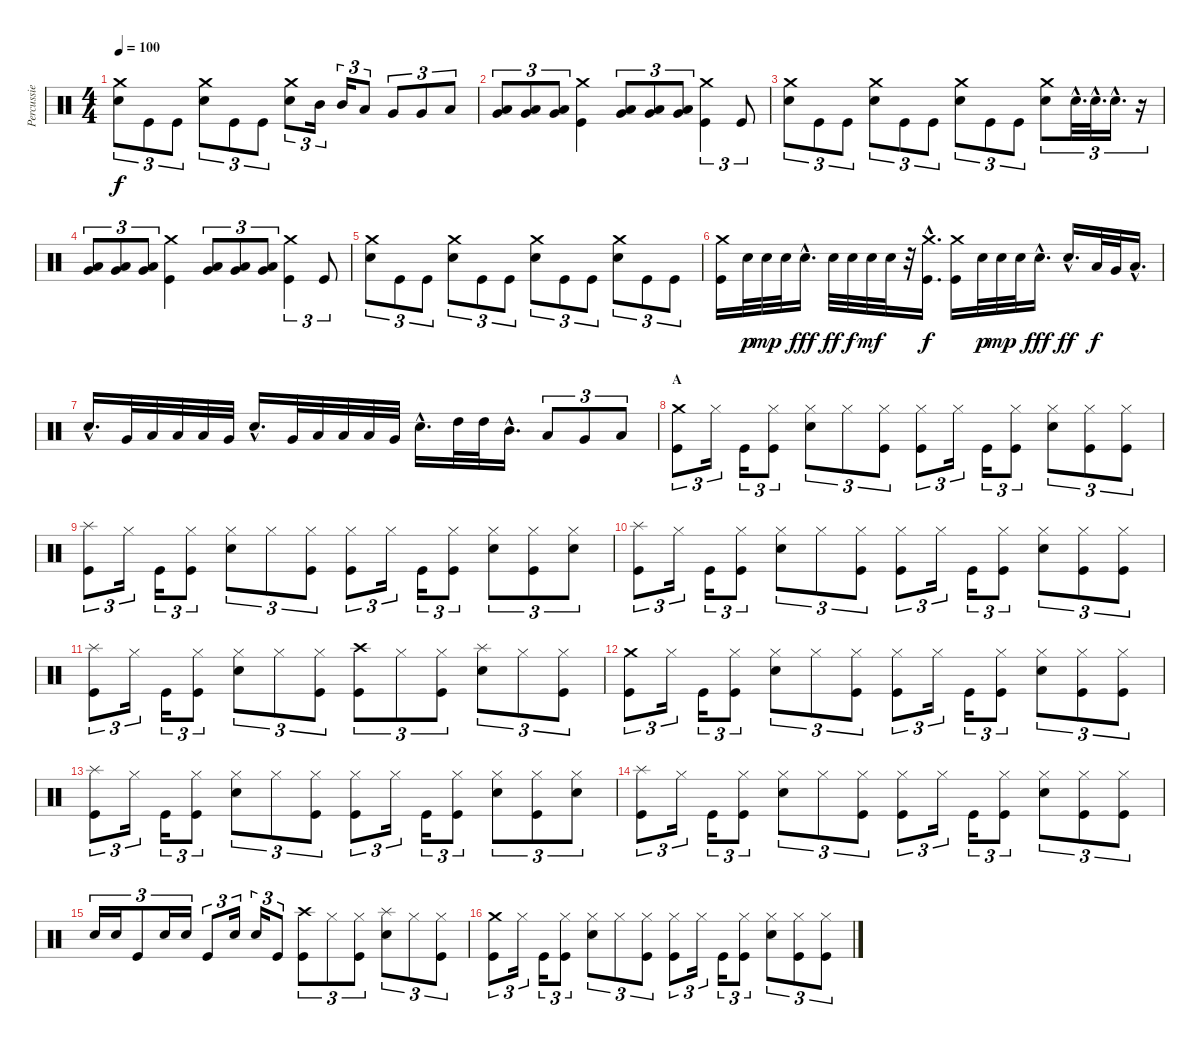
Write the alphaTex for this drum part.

\track ("Percussie" "Percussie") {instrument percussion}
\staff {score}
\articulation defaults
\ts (4 4)
\tempo 100
\clef neutral
\ks c
("Crash medium (hit)" "Electric Snare (hit)").8{tu (3 2) dy f} "Kick (hit)".8{tu (3 2)} "Kick (hit)".8{tu (3 2)} ("Crash medium (hit)" "Electric Snare (hit)").8{tu (3 2)} "Kick (hit)".8{tu (3 2)} "Kick (hit)".8{tu (3 2)} ("Crash medium (hit)" "Electric Snare (hit)").8{tu (3 2)} "Mid Tom (hit)".16{tu (3 2)} "Mid Tom (hit)".16{tu (3 2)} "Low Tom (hit)".8{tu (3 2)} "Very Low Tom (hit)".8{tu (3 2)} "Very Low Tom (hit)".8{tu (3 2)} "Low Floor Tom (hit)".8{tu (3 2)} |
("Very Low Tom (hit)" "Low Floor Tom (hit)").8{tu (3 2)} ("Very Low Tom (hit)" "Low Floor Tom (hit)").8{tu (3 2)} ("Very Low Tom (hit)" "Low Floor Tom (hit)").8{tu (3 2)} ("Crash medium (hit)" "Kick (hit)").4 ("Very Low Tom (hit)" "Low Floor Tom (hit)").8{tu (3 2)} ("Very Low Tom (hit)" "Low Floor Tom (hit)").8{tu (3 2)} ("Very Low Tom (hit)" "Low Floor Tom (hit)").8{tu (3 2)} ("Crash medium (hit)" "Kick (hit)").4{tu (3 2)} "Kick (hit)".8{tu (3 2)} |
("Crash medium (hit)" "Electric Snare (hit)").8{tu (3 2)} "Kick (hit)".8{tu (3 2)} "Kick (hit)".8{tu (3 2)} ("Crash medium (hit)" "Electric Snare (hit)").8{tu (3 2)} "Kick (hit)".8{tu (3 2)} "Kick (hit)".8{tu (3 2)} ("Crash medium (hit)" "Electric Snare (hit)").8{tu (3 2)} "Kick (hit)".8{tu (3 2)} "Kick (hit)".8{tu (3 2)} ("Crash medium (hit)" "Electric Snare (hit)").8{tu (3 2)} "Electric Snare (hit)"{hac}.32{d tu (3 2)} "Electric Snare (hit)"{hac}.32{d tu (3 2)} "Electric Snare (hit)"{hac}.16{d tu (3 2)} r.16{tu (3 2)} |
("Very Low Tom (hit)" "Low Floor Tom (hit)").8{tu (3 2)} ("Very Low Tom (hit)" "Low Floor Tom (hit)").8{tu (3 2)} ("Very Low Tom (hit)" "Low Floor Tom (hit)").8{tu (3 2)} ("Crash medium (hit)" "Kick (hit)").4 ("Very Low Tom (hit)" "Low Floor Tom (hit)").8{tu (3 2)} ("Very Low Tom (hit)" "Low Floor Tom (hit)").8{tu (3 2)} ("Very Low Tom (hit)" "Low Floor Tom (hit)").8{tu (3 2)} ("Crash medium (hit)" "Kick (hit)").4{tu (3 2)} "Kick (hit)".8{tu (3 2)} |
("Crash medium (hit)" "Electric Snare (hit)").8{tu (3 2)} "Kick (hit)".8{tu (3 2)} "Kick (hit)".8{tu (3 2)} ("Crash medium (hit)" "Electric Snare (hit)").8{tu (3 2)} "Kick (hit)".8{tu (3 2)} "Kick (hit)".8{tu (3 2)} ("Crash medium (hit)" "Electric Snare (hit)").8{tu (3 2)} "Kick (hit)".8{tu (3 2)} "Kick (hit)".8{tu (3 2)} ("Crash medium (hit)" "Electric Snare (hit)").8{tu (3 2)} "Kick (hit)".8{tu (3 2)} "Kick (hit)".8{tu (3 2)} |
("Crash medium (hit)" "Kick (hit)").16 "Electric Snare (hit)".32{dy p} "Electric Snare (hit)".32{dy mp} "Electric Snare (hit)".32 "Electric Snare (hit)"{hac}.16{d dy fff} "Electric Snare (hit)".32{dy ff} "Electric Snare (hit)".32{dy f} "Electric Snare (hit)".32{dy mf} "Electric Snare (hit)".32 r.32 ("Crash medium (hit)"{hac} "Kick (hit)"{hac}).16{d dy f} ("Crash medium (hit)" "Kick (hit)").16 "Electric Snare (hit)".32{dy p} "Electric Snare (hit)".32{dy mp} "Electric Snare (hit)".32 "Electric Snare (hit)"{hac}.16{d dy fff} "Electric Snare (hit)"{hac}.16{d dy ff} "Low Tom (hit)".32{dy f} "Very Low Tom (hit)".32 "Low Floor Tom (hit)"{hac}.16{d} |
"Electric Snare (hit)"{hac}.16{d} "Very Low Tom (hit)".32 "Low Floor Tom (hit)".32 "Low Floor Tom (hit)".32 "Low Floor Tom (hit)".32 "Very Low Tom (hit)".32 "Electric Snare (hit)"{hac}.16{d} "Very Low Tom (hit)".32 "Low Floor Tom (hit)".32 "Low Floor Tom (hit)".32 "Low Floor Tom (hit)".32 "Very Low Tom (hit)".32 "Electric Snare (hit)"{hac}.16{d} "High Tom (hit)".32 "High Tom (hit)".32 "Mid Tom (hit)"{hac}.16{d} "Low Tom (hit)".8{tu (3 2)} "Very Low Tom (hit)".8{tu (3 2)} "Low Floor Tom (hit)".8{tu (3 2)} |
\section ("" "A")
("Crash medium (hit)" "Kick (hit)").8{tu (3 2)} "Hi-Hat (closed)".16{tu (3 2)} "Kick (hit)".16{tu (3 2)} ("Hi-Hat (closed)" "Kick (hit)").8{tu (3 2)} ("Hi-Hat (closed)" "Electric Snare (hit)").8{tu (3 2)} "Hi-Hat (closed)".8{tu (3 2)} ("Hi-Hat (closed)" "Kick (hit)").8{tu (3 2)} ("Hi-Hat (closed)" "Kick (hit)").8{tu (3 2)} "Hi-Hat (closed)".16{tu (3 2)} "Kick (hit)".16{tu (3 2)} ("Hi-Hat (closed)" "Kick (hit)").8{tu (3 2)} ("Hi-Hat (closed)" "Electric Snare (hit)").8{tu (3 2)} ("Hi-Hat (closed)" "Kick (hit)").8{tu (3 2)} ("Hi-Hat (closed)" "Kick (hit)").8{tu (3 2)} |
("Splash (hit)" "Kick (hit)").8{tu (3 2)} "Hi-Hat (closed)".16{tu (3 2)} "Kick (hit)".16{tu (3 2)} ("Hi-Hat (closed)" "Kick (hit)").8{tu (3 2)} ("Hi-Hat (closed)" "Electric Snare (hit)").8{tu (3 2)} "Hi-Hat (closed)".8{tu (3 2)} ("Hi-Hat (closed)" "Kick (hit)").8{tu (3 2)} ("Hi-Hat (closed)" "Kick (hit)").8{tu (3 2)} "Hi-Hat (closed)".16{tu (3 2)} "Kick (hit)".16{tu (3 2)} ("Hi-Hat (closed)" "Kick (hit)").8{tu (3 2)} ("Hi-Hat (closed)" "Electric Snare (hit)").8{tu (3 2)} ("Hi-Hat (closed)" "Kick (hit)").8{tu (3 2)} ("Hi-Hat (closed)" "Electric Snare (hit)").8{tu (3 2)} |
("Splash (hit)" "Kick (hit)").8{tu (3 2)} "Hi-Hat (closed)".16{tu (3 2)} "Kick (hit)".16{tu (3 2)} ("Hi-Hat (closed)" "Kick (hit)").8{tu (3 2)} ("Hi-Hat (closed)" "Electric Snare (hit)").8{tu (3 2)} "Hi-Hat (closed)".8{tu (3 2)} ("Hi-Hat (closed)" "Kick (hit)").8{tu (3 2)} ("Hi-Hat (closed)" "Kick (hit)").8{tu (3 2)} "Hi-Hat (closed)".16{tu (3 2)} "Kick (hit)".16{tu (3 2)} ("Hi-Hat (closed)" "Kick (hit)").8{tu (3 2)} ("Hi-Hat (closed)" "Electric Snare (hit)").8{tu (3 2)} ("Hi-Hat (closed)" "Kick (hit)").8{tu (3 2)} ("Hi-Hat (closed)" "Kick (hit)").8{tu (3 2)} |
("Splash (hit)" "Kick (hit)").8{tu (3 2)} "Hi-Hat (closed)".16{tu (3 2)} "Kick (hit)".16{tu (3 2)} ("Hi-Hat (closed)" "Kick (hit)").8{tu (3 2)} ("Hi-Hat (closed)" "Electric Snare (hit)").8{tu (3 2)} "Hi-Hat (closed)".8{tu (3 2)} ("Hi-Hat (closed)" "Kick (hit)").8{tu (3 2)} ("Crash high (hit)" "Kick (hit)").8{tu (3 2)} "Hi-Hat (closed)".8{tu (3 2)} ("Hi-Hat (closed)" "Kick (hit)").8{tu (3 2)} ("Splash (hit)" "Electric Snare (hit)").8{tu (3 2)} "Hi-Hat (closed)".8{tu (3 2)} ("Hi-Hat (closed)" "Kick (hit)").8{tu (3 2)} |
("Crash medium (hit)" "Kick (hit)").8{tu (3 2)} "Hi-Hat (closed)".16{tu (3 2)} "Kick (hit)".16{tu (3 2)} ("Hi-Hat (closed)" "Kick (hit)").8{tu (3 2)} ("Hi-Hat (closed)" "Electric Snare (hit)").8{tu (3 2)} "Hi-Hat (closed)".8{tu (3 2)} ("Hi-Hat (closed)" "Kick (hit)").8{tu (3 2)} ("Hi-Hat (closed)" "Kick (hit)").8{tu (3 2)} "Hi-Hat (closed)".16{tu (3 2)} "Kick (hit)".16{tu (3 2)} ("Hi-Hat (closed)" "Kick (hit)").8{tu (3 2)} ("Hi-Hat (closed)" "Electric Snare (hit)").8{tu (3 2)} ("Hi-Hat (closed)" "Kick (hit)").8{tu (3 2)} ("Hi-Hat (closed)" "Kick (hit)").8{tu (3 2)} |
("Splash (hit)" "Kick (hit)").8{tu (3 2)} "Hi-Hat (closed)".16{tu (3 2)} "Kick (hit)".16{tu (3 2)} ("Hi-Hat (closed)" "Kick (hit)").8{tu (3 2)} ("Hi-Hat (closed)" "Electric Snare (hit)").8{tu (3 2)} "Hi-Hat (closed)".8{tu (3 2)} ("Hi-Hat (closed)" "Kick (hit)").8{tu (3 2)} ("Hi-Hat (closed)" "Kick (hit)").8{tu (3 2)} "Hi-Hat (closed)".16{tu (3 2)} "Kick (hit)".16{tu (3 2)} ("Hi-Hat (closed)" "Kick (hit)").8{tu (3 2)} ("Hi-Hat (closed)" "Electric Snare (hit)").8{tu (3 2)} ("Hi-Hat (closed)" "Kick (hit)").8{tu (3 2)} ("Hi-Hat (closed)" "Electric Snare (hit)").8{tu (3 2)} |
("Splash (hit)" "Kick (hit)").8{tu (3 2)} "Hi-Hat (closed)".16{tu (3 2)} "Kick (hit)".16{tu (3 2)} ("Hi-Hat (closed)" "Kick (hit)").8{tu (3 2)} ("Hi-Hat (closed)" "Electric Snare (hit)").8{tu (3 2)} "Hi-Hat (closed)".8{tu (3 2)} ("Hi-Hat (closed)" "Kick (hit)").8{tu (3 2)} ("Hi-Hat (closed)" "Kick (hit)").8{tu (3 2)} "Hi-Hat (closed)".16{tu (3 2)} "Kick (hit)".16{tu (3 2)} ("Hi-Hat (closed)" "Kick (hit)").8{tu (3 2)} ("Hi-Hat (closed)" "Electric Snare (hit)").8{tu (3 2)} ("Hi-Hat (closed)" "Kick (hit)").8{tu (3 2)} ("Hi-Hat (closed)" "Kick (hit)").8{tu (3 2)} |
"Electric Snare (hit)".16{tu (3 2)} "Electric Snare (hit)".16{tu (3 2)} "Kick (hit)".8{tu (3 2)} "Electric Snare (hit)".16{tu (3 2)} "Electric Snare (hit)".16{tu (3 2)} "Kick (hit)".8{tu (3 2)} "Electric Snare (hit)".16{tu (3 2)} "Electric Snare (hit)".16{tu (3 2)} "Kick (hit)".8{tu (3 2)} ("Crash high (hit)" "Kick (hit)").8{tu (3 2)} "Hi-Hat (closed)".8{tu (3 2)} ("Hi-Hat (closed)" "Kick (hit)").8{tu (3 2)} ("Splash (hit)" "Electric Snare (hit)").8{tu (3 2)} "Hi-Hat (closed)".8{tu (3 2)} ("Hi-Hat (closed)" "Kick (hit)").8{tu (3 2)} |
("Crash medium (hit)" "Kick (hit)").8{tu (3 2)} "Hi-Hat (closed)".16{tu (3 2)} "Kick (hit)".16{tu (3 2)} ("Hi-Hat (closed)" "Kick (hit)").8{tu (3 2)} ("Hi-Hat (closed)" "Electric Snare (hit)").8{tu (3 2)} "Hi-Hat (closed)".8{tu (3 2)} ("Hi-Hat (closed)" "Kick (hit)").8{tu (3 2)} ("Hi-Hat (closed)" "Kick (hit)").8{tu (3 2)} "Hi-Hat (closed)".16{tu (3 2)} "Kick (hit)".16{tu (3 2)} ("Hi-Hat (closed)" "Kick (hit)").8{tu (3 2)} ("Hi-Hat (closed)" "Electric Snare (hit)").8{tu (3 2)} ("Hi-Hat (closed)" "Kick (hit)").8{tu (3 2)} ("Hi-Hat (closed)" "Kick (hit)").8{tu (3 2)}
